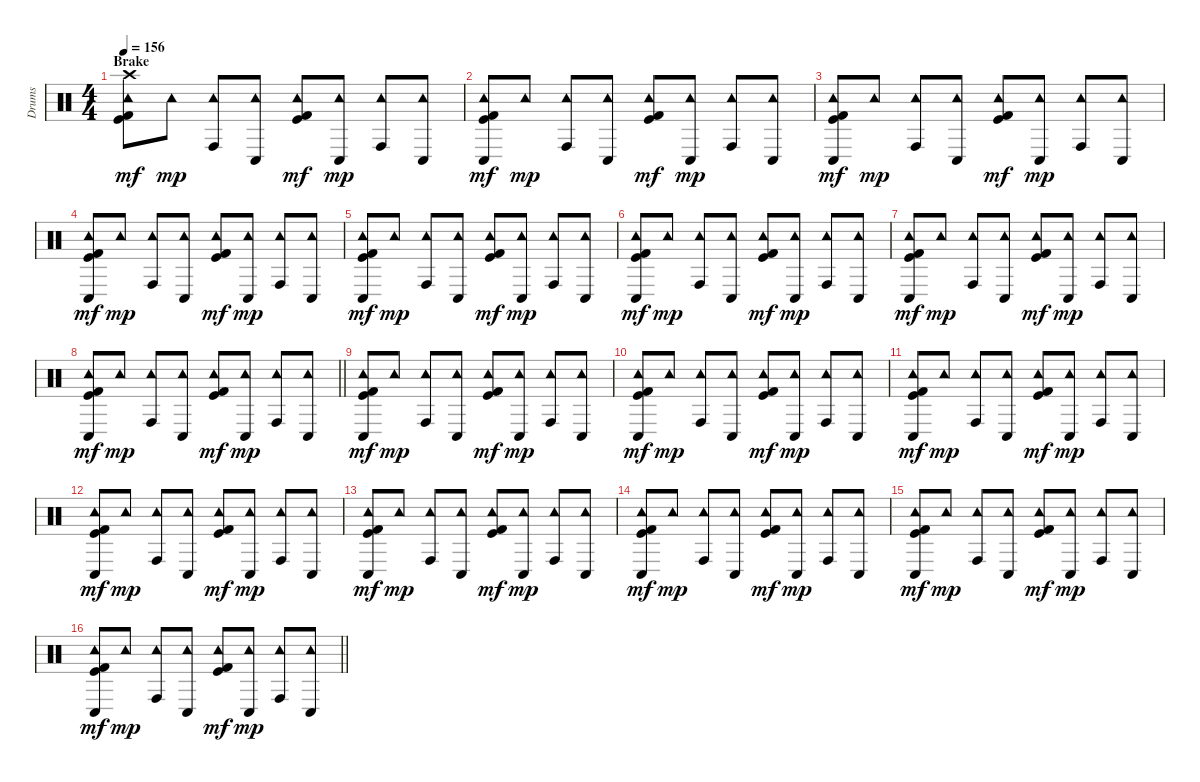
\track ("Drums" "Drums") {instrument percussion}
\staff {score}
\articulation defaults
\ts (4 4)
\section ("" "Brake")
\tempo 156
\clef neutral
\ks c
("Crash high (hit)" "Tambourine (hit)" "Kick (hit) 2" "Kick (hit)").8{dy mf} "Tambourine (hit)".8{dy mp} ("Tambourine (hit)" "Conga high (hit)").8 ("Tambourine (hit)" "Conga low (hit)").8 ("Tambourine (hit)" "Kick (hit) 2" "Kick (hit)").8{dy mf} ("Tambourine (hit)" "Conga low (hit)").8{dy mp} ("Tambourine (hit)" "Conga high (hit)").8 ("Tambourine (hit)" "Conga low (hit)").8 |
("Tambourine (hit)" "Conga low (hit)" "Kick (hit) 2" "Kick (hit)").8{dy mf} "Tambourine (hit)".8{dy mp} ("Tambourine (hit)" "Conga high (hit)").8 ("Tambourine (hit)" "Conga low (hit)").8 ("Tambourine (hit)" "Kick (hit) 2" "Kick (hit)").8{dy mf} ("Tambourine (hit)" "Conga low (hit)").8{dy mp} ("Tambourine (hit)" "Conga high (hit)").8 ("Tambourine (hit)" "Conga low (hit)").8 |
("Tambourine (hit)" "Conga low (hit)" "Kick (hit) 2" "Kick (hit)").8{dy mf} "Tambourine (hit)".8{dy mp} ("Tambourine (hit)" "Conga high (hit)").8 ("Tambourine (hit)" "Conga low (hit)").8 ("Tambourine (hit)" "Kick (hit) 2" "Kick (hit)").8{dy mf} ("Tambourine (hit)" "Conga low (hit)").8{dy mp} ("Tambourine (hit)" "Conga high (hit)").8 ("Tambourine (hit)" "Conga low (hit)").8 |
("Tambourine (hit)" "Conga low (hit)" "Kick (hit) 2" "Kick (hit)").8{dy mf} "Tambourine (hit)".8{dy mp} ("Tambourine (hit)" "Conga high (hit)").8 ("Tambourine (hit)" "Conga low (hit)").8 ("Tambourine (hit)" "Kick (hit) 2" "Kick (hit)").8{dy mf} ("Tambourine (hit)" "Conga low (hit)").8{dy mp} ("Tambourine (hit)" "Conga high (hit)").8 ("Tambourine (hit)" "Conga low (hit)").8 |
("Tambourine (hit)" "Conga low (hit)" "Kick (hit) 2" "Kick (hit)").8{dy mf} "Tambourine (hit)".8{dy mp} ("Tambourine (hit)" "Conga high (hit)").8 ("Tambourine (hit)" "Conga low (hit)").8 ("Tambourine (hit)" "Kick (hit) 2" "Kick (hit)").8{dy mf} ("Tambourine (hit)" "Conga low (hit)").8{dy mp} ("Tambourine (hit)" "Conga high (hit)").8 ("Tambourine (hit)" "Conga low (hit)").8 |
("Tambourine (hit)" "Conga low (hit)" "Kick (hit) 2" "Kick (hit)").8{dy mf} "Tambourine (hit)".8{dy mp} ("Tambourine (hit)" "Conga high (hit)").8 ("Tambourine (hit)" "Conga low (hit)").8 ("Tambourine (hit)" "Kick (hit) 2" "Kick (hit)").8{dy mf} ("Tambourine (hit)" "Conga low (hit)").8{dy mp} ("Tambourine (hit)" "Conga high (hit)").8 ("Tambourine (hit)" "Conga low (hit)").8 |
("Tambourine (hit)" "Conga low (hit)" "Kick (hit) 2" "Kick (hit)").8{dy mf} "Tambourine (hit)".8{dy mp} ("Tambourine (hit)" "Conga high (hit)").8 ("Tambourine (hit)" "Conga low (hit)").8 ("Tambourine (hit)" "Kick (hit) 2" "Kick (hit)").8{dy mf} ("Tambourine (hit)" "Conga low (hit)").8{dy mp} ("Tambourine (hit)" "Conga high (hit)").8 ("Tambourine (hit)" "Conga low (hit)").8 |
\barLineRight lightlight
("Tambourine (hit)" "Conga low (hit)" "Kick (hit) 2" "Kick (hit)").8{dy mf} "Tambourine (hit)".8{dy mp} ("Tambourine (hit)" "Conga high (hit)").8 ("Tambourine (hit)" "Conga low (hit)").8 ("Tambourine (hit)" "Kick (hit) 2" "Kick (hit)").8{dy mf} ("Tambourine (hit)" "Conga low (hit)").8{dy mp} ("Tambourine (hit)" "Conga high (hit)").8 ("Tambourine (hit)" "Conga low (hit)").8 |
("Tambourine (hit)" "Conga low (hit)" "Kick (hit) 2" "Kick (hit)").8{dy mf} "Tambourine (hit)".8{dy mp} ("Tambourine (hit)" "Conga high (hit)").8 ("Tambourine (hit)" "Conga low (hit)").8 ("Tambourine (hit)" "Kick (hit) 2" "Kick (hit)").8{dy mf} ("Tambourine (hit)" "Conga low (hit)").8{dy mp} ("Tambourine (hit)" "Conga high (hit)").8 ("Tambourine (hit)" "Conga low (hit)").8 |
("Tambourine (hit)" "Conga low (hit)" "Kick (hit) 2" "Kick (hit)").8{dy mf} "Tambourine (hit)".8{dy mp} ("Tambourine (hit)" "Conga high (hit)").8 ("Tambourine (hit)" "Conga low (hit)").8 ("Tambourine (hit)" "Kick (hit) 2" "Kick (hit)").8{dy mf} ("Tambourine (hit)" "Conga low (hit)").8{dy mp} ("Tambourine (hit)" "Conga high (hit)").8 ("Tambourine (hit)" "Conga low (hit)").8 |
("Tambourine (hit)" "Conga low (hit)" "Kick (hit) 2" "Kick (hit)").8{dy mf} "Tambourine (hit)".8{dy mp} ("Tambourine (hit)" "Conga high (hit)").8 ("Tambourine (hit)" "Conga low (hit)").8 ("Tambourine (hit)" "Kick (hit) 2" "Kick (hit)").8{dy mf} ("Tambourine (hit)" "Conga low (hit)").8{dy mp} ("Tambourine (hit)" "Conga high (hit)").8 ("Tambourine (hit)" "Conga low (hit)").8 |
("Tambourine (hit)" "Conga low (hit)" "Kick (hit) 2" "Kick (hit)").8{dy mf} "Tambourine (hit)".8{dy mp} ("Tambourine (hit)" "Conga high (hit)").8 ("Tambourine (hit)" "Conga low (hit)").8 ("Tambourine (hit)" "Kick (hit) 2" "Kick (hit)").8{dy mf} ("Tambourine (hit)" "Conga low (hit)").8{dy mp} ("Tambourine (hit)" "Conga high (hit)").8 ("Tambourine (hit)" "Conga low (hit)").8 |
("Tambourine (hit)" "Conga low (hit)" "Kick (hit) 2" "Kick (hit)").8{dy mf} "Tambourine (hit)".8{dy mp} ("Tambourine (hit)" "Conga high (hit)").8 ("Tambourine (hit)" "Conga low (hit)").8 ("Tambourine (hit)" "Kick (hit) 2" "Kick (hit)").8{dy mf} ("Tambourine (hit)" "Conga low (hit)").8{dy mp} ("Tambourine (hit)" "Conga high (hit)").8 ("Tambourine (hit)" "Conga low (hit)").8 |
("Tambourine (hit)" "Conga low (hit)" "Kick (hit) 2" "Kick (hit)").8{dy mf} "Tambourine (hit)".8{dy mp} ("Tambourine (hit)" "Conga high (hit)").8 ("Tambourine (hit)" "Conga low (hit)").8 ("Tambourine (hit)" "Kick (hit) 2" "Kick (hit)").8{dy mf} ("Tambourine (hit)" "Conga low (hit)").8{dy mp} ("Tambourine (hit)" "Conga high (hit)").8 ("Tambourine (hit)" "Conga low (hit)").8 |
("Tambourine (hit)" "Conga low (hit)" "Kick (hit) 2" "Kick (hit)").8{dy mf} "Tambourine (hit)".8{dy mp} ("Tambourine (hit)" "Conga high (hit)").8 ("Tambourine (hit)" "Conga low (hit)").8 ("Tambourine (hit)" "Kick (hit) 2" "Kick (hit)").8{dy mf} ("Tambourine (hit)" "Conga low (hit)").8{dy mp} ("Tambourine (hit)" "Conga high (hit)").8 ("Tambourine (hit)" "Conga low (hit)").8 |
\barLineRight lightlight
("Tambourine (hit)" "Conga low (hit)" "Kick (hit) 2" "Kick (hit)").8{dy mf} "Tambourine (hit)".8{dy mp} ("Tambourine (hit)" "Conga high (hit)").8 ("Tambourine (hit)" "Conga low (hit)").8 ("Tambourine (hit)" "Kick (hit) 2" "Kick (hit)").8{dy mf} ("Tambourine (hit)" "Conga low (hit)").8{dy mp} ("Tambourine (hit)" "Conga high (hit)").8 ("Tambourine (hit)" "Conga low (hit)").8
